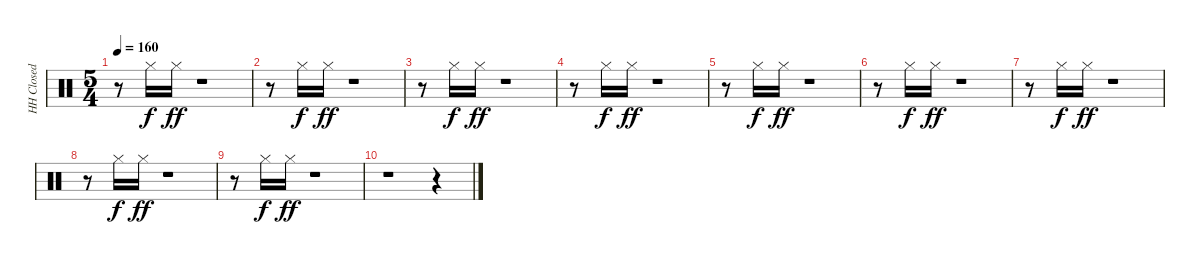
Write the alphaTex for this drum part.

\track ("HH Closed" "HH Closed") {instrument percussion}
\staff {score}
\articulation defaults
\ts (5 4)
\tempo 160
\clef neutral
\ks c
r.8{dy ff} "Hi-Hat (closed)".16{dy f} "Hi-Hat (closed)".16{dy ff} r.1 |
r.8 "Hi-Hat (closed)".16{dy f} "Hi-Hat (closed)".16{dy ff} r.1 |
r.8 "Hi-Hat (closed)".16{dy f} "Hi-Hat (closed)".16{dy ff} r.1 |
r.8 "Hi-Hat (closed)".16{dy f} "Hi-Hat (closed)".16{dy ff} r.1 |
r.8 "Hi-Hat (closed)".16{dy f} "Hi-Hat (closed)".16{dy ff} r.1 |
r.8 "Hi-Hat (closed)".16{dy f} "Hi-Hat (closed)".16{dy ff} r.1 |
r.8 "Hi-Hat (closed)".16{dy f} "Hi-Hat (closed)".16{dy ff} r.1 |
r.8 "Hi-Hat (closed)".16{dy f} "Hi-Hat (closed)".16{dy ff} r.1 |
r.8 "Hi-Hat (closed)".16{dy f} "Hi-Hat (closed)".16{dy ff} r.1 |
r.1 r.4
